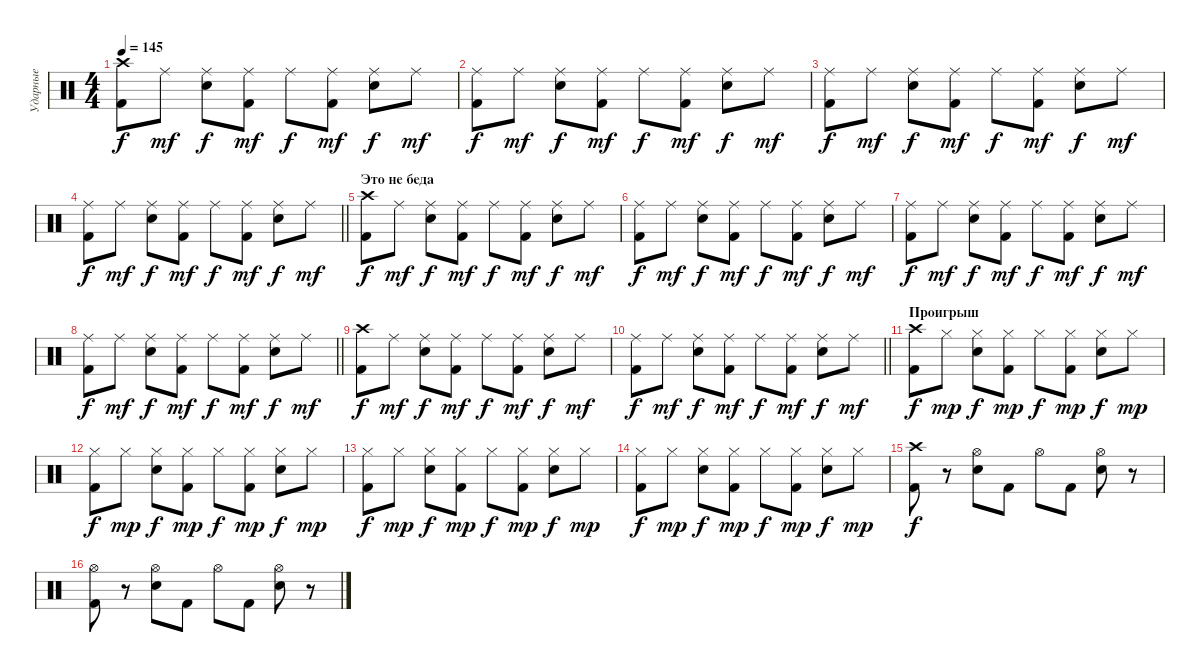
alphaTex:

\track ("Ударные" "Ударные") {instrument percussion}
\staff {score}
\articulation defaults
\ts (4 4)
\tempo 145
\clef neutral
\ks c
("Crash high (hit)" "Kick (hit) 2").8{dy f} "Ride (middle)".8{dy mf} ("Ride (middle)" "Snare (hit) 2").8{dy f} ("Ride (middle)" "Kick (hit) 2").8{dy mf} "Ride (middle)".8{dy f} ("Ride (middle)" "Kick (hit) 2").8{dy mf} ("Ride (middle)" "Snare (hit) 2").8{dy f} "Ride (middle)".8{dy mf} |
("Ride (middle)" "Kick (hit) 2").8{dy f} "Ride (middle)".8{dy mf} ("Ride (middle)" "Snare (hit) 2").8{dy f} ("Ride (middle)" "Kick (hit) 2").8{dy mf} "Ride (middle)".8{dy f} ("Ride (middle)" "Kick (hit) 2").8{dy mf} ("Ride (middle)" "Snare (hit) 2").8{dy f} "Ride (middle)".8{dy mf} |
("Ride (middle)" "Kick (hit) 2").8{dy f} "Ride (middle)".8{dy mf} ("Ride (middle)" "Snare (hit) 2").8{dy f} ("Ride (middle)" "Kick (hit) 2").8{dy mf} "Ride (middle)".8{dy f} ("Ride (middle)" "Kick (hit) 2").8{dy mf} ("Ride (middle)" "Snare (hit) 2").8{dy f} "Ride (middle)".8{dy mf} |
\barLineRight lightlight
("Ride (middle)" "Kick (hit) 2").8{dy f} "Ride (middle)".8{dy mf} ("Ride (middle)" "Snare (hit) 2").8{dy f} ("Ride (middle)" "Kick (hit) 2").8{dy mf} "Ride (middle)".8{dy f} ("Ride (middle)" "Kick (hit) 2").8{dy mf} ("Ride (middle)" "Snare (hit) 2").8{dy f} "Ride (middle)".8{dy mf} |
\section ("" "Это не беда")
("Crash high (hit)" "Kick (hit) 2").8{dy f} "Ride (middle)".8{dy mf} ("Ride (middle)" "Snare (hit) 2").8{dy f} ("Ride (middle)" "Kick (hit) 2").8{dy mf} "Ride (middle)".8{dy f} ("Ride (middle)" "Kick (hit) 2").8{dy mf} ("Ride (middle)" "Snare (hit) 2").8{dy f} "Ride (middle)".8{dy mf} |
("Ride (middle)" "Kick (hit) 2").8{dy f} "Ride (middle)".8{dy mf} ("Ride (middle)" "Snare (hit) 2").8{dy f} ("Ride (middle)" "Kick (hit) 2").8{dy mf} "Ride (middle)".8{dy f} ("Ride (middle)" "Kick (hit) 2").8{dy mf} ("Ride (middle)" "Snare (hit) 2").8{dy f} "Ride (middle)".8{dy mf} |
("Ride (middle)" "Kick (hit) 2").8{dy f} "Ride (middle)".8{dy mf} ("Ride (middle)" "Snare (hit) 2").8{dy f} ("Ride (middle)" "Kick (hit) 2").8{dy mf} "Ride (middle)".8{dy f} ("Ride (middle)" "Kick (hit) 2").8{dy mf} ("Ride (middle)" "Snare (hit) 2").8{dy f} "Ride (middle)".8{dy mf} |
\barLineRight lightlight
("Ride (middle)" "Kick (hit) 2").8{dy f} "Ride (middle)".8{dy mf} ("Ride (middle)" "Snare (hit) 2").8{dy f} ("Ride (middle)" "Kick (hit) 2").8{dy mf} "Ride (middle)".8{dy f} ("Ride (middle)" "Kick (hit) 2").8{dy mf} ("Ride (middle)" "Snare (hit) 2").8{dy f} "Ride (middle)".8{dy mf} |
("Crash high (hit)" "Kick (hit) 2").8{dy f} "Ride (middle)".8{dy mf} ("Ride (middle)" "Snare (hit) 2").8{dy f} ("Ride (middle)" "Kick (hit) 2").8{dy mf} "Ride (middle)".8{dy f} ("Ride (middle)" "Kick (hit) 2").8{dy mf} ("Ride (middle)" "Snare (hit) 2").8{dy f} "Ride (middle)".8{dy mf} |
\barLineRight lightlight
("Ride (middle)" "Kick (hit) 2").8{dy f} "Ride (middle)".8{dy mf} ("Ride (middle)" "Snare (hit) 2").8{dy f} ("Ride (middle)" "Kick (hit) 2").8{dy mf} "Ride (middle)".8{dy f} ("Ride (middle)" "Kick (hit) 2").8{dy mf} ("Ride (middle)" "Snare (hit) 2").8{dy f} "Ride (middle)".8{dy mf} |
\section ("" "Проигрыш")
("Crash high (hit)" "Kick (hit) 2").8{dy f} "Hi-Hat (closed)".8{dy mp} ("Hi-Hat (closed)" "Snare (hit) 2").8{dy f} ("Hi-Hat (closed)" "Kick (hit) 2").8{dy mp} "Hi-Hat (closed)".8{dy f} ("Hi-Hat (closed)" "Kick (hit) 2").8{dy mp} ("Hi-Hat (closed)" "Snare (hit) 2").8{dy f} "Hi-Hat (closed)".8{dy mp} |
("Hi-Hat (closed)" "Kick (hit) 2").8{dy f} "Hi-Hat (closed)".8{dy mp} ("Hi-Hat (closed)" "Snare (hit) 2").8{dy f} ("Hi-Hat (closed)" "Kick (hit) 2").8{dy mp} "Hi-Hat (closed)".8{dy f} ("Hi-Hat (closed)" "Kick (hit) 2").8{dy mp} ("Hi-Hat (closed)" "Snare (hit) 2").8{dy f} "Hi-Hat (closed)".8{dy mp} |
("Hi-Hat (closed)" "Kick (hit) 2").8{dy f} "Hi-Hat (closed)".8{dy mp} ("Hi-Hat (closed)" "Snare (hit) 2").8{dy f} ("Hi-Hat (closed)" "Kick (hit) 2").8{dy mp} "Hi-Hat (closed)".8{dy f} ("Hi-Hat (closed)" "Kick (hit) 2").8{dy mp} ("Hi-Hat (closed)" "Snare (hit) 2").8{dy f} "Hi-Hat (closed)".8{dy mp} |
("Hi-Hat (closed)" "Kick (hit) 2").8{dy f} "Hi-Hat (closed)".8{dy mp} ("Hi-Hat (closed)" "Snare (hit) 2").8{dy f} ("Hi-Hat (closed)" "Kick (hit) 2").8{dy mp} "Hi-Hat (closed)".8{dy f} ("Hi-Hat (closed)" "Kick (hit) 2").8{dy mp} ("Hi-Hat (closed)" "Snare (hit) 2").8{dy f} "Hi-Hat (closed)".8{dy mp} |
("Crash high (hit)" "Kick (hit) 2").8{dy f} r.8 ("Hi-Hat (open)" "Snare (hit) 2").8 "Kick (hit) 2".8 "Hi-Hat (open)".8 "Kick (hit) 2".8 ("Hi-Hat (open)" "Snare (hit) 2").8 r.8 |
("Hi-Hat (open)" "Kick (hit) 2").8 r.8 ("Hi-Hat (open)" "Snare (hit) 2").8 "Kick (hit) 2".8 "Hi-Hat (open)".8 "Kick (hit) 2".8 ("Hi-Hat (open)" "Snare (hit) 2").8 r.8
